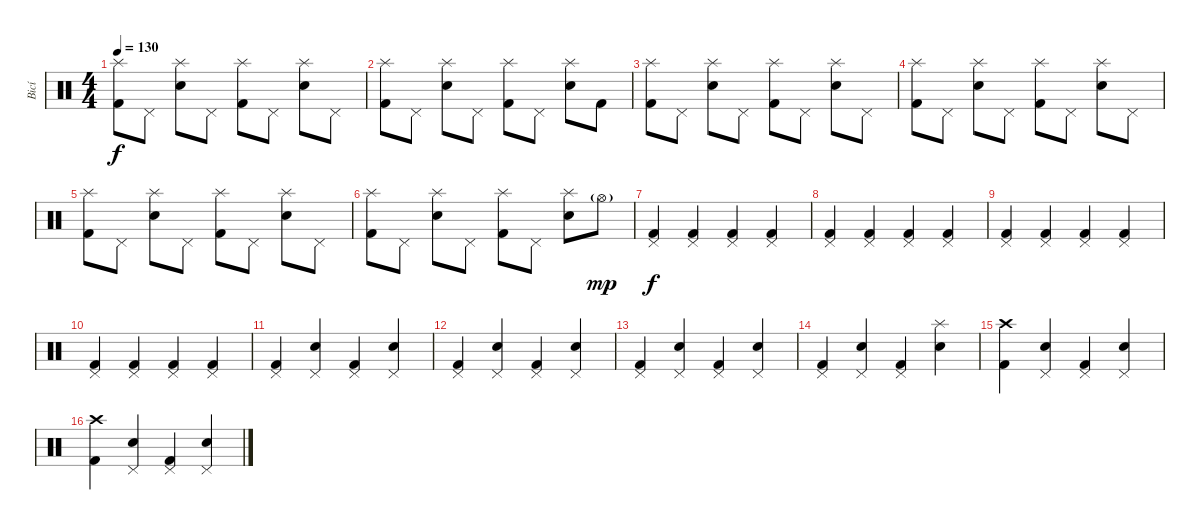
\track ("Bicí" "Bicí") {instrument percussion}
\staff {score}
\articulation defaults
\ts (4 4)
\tempo 130
\clef neutral
\ks c
("Splash (hit)" "Kick (hit) 2").8{dy f} "Pedal Hi-Hat (hit)".8 ("Splash (hit)" "Electric Snare (hit)").8 "Pedal Hi-Hat (hit)".8 ("Splash (hit)" "Kick (hit) 2").8 "Pedal Hi-Hat (hit)".8 ("Splash (hit)" "Electric Snare (hit)").8 "Pedal Hi-Hat (hit)".8 |
("Splash (hit)" "Kick (hit) 2").8 "Pedal Hi-Hat (hit)".8 ("Splash (hit)" "Electric Snare (hit)").8 "Pedal Hi-Hat (hit)".8 ("Splash (hit)" "Kick (hit) 2").8 "Pedal Hi-Hat (hit)".8 ("Splash (hit)" "Electric Snare (hit)").8 "Kick (hit) 2".8 |
("Splash (hit)" "Kick (hit) 2").8 "Pedal Hi-Hat (hit)".8 ("Splash (hit)" "Electric Snare (hit)").8 "Pedal Hi-Hat (hit)".8 ("Splash (hit)" "Kick (hit) 2").8 "Pedal Hi-Hat (hit)".8 ("Splash (hit)" "Electric Snare (hit)").8 "Pedal Hi-Hat (hit)".8 |
("Splash (hit)" "Kick (hit) 2").8 "Pedal Hi-Hat (hit)".8 ("Splash (hit)" "Electric Snare (hit)").8 "Pedal Hi-Hat (hit)".8 ("Splash (hit)" "Kick (hit) 2").8 "Pedal Hi-Hat (hit)".8 ("Splash (hit)" "Electric Snare (hit)").8 "Pedal Hi-Hat (hit)".8 |
("Splash (hit)" "Kick (hit) 2").8 "Pedal Hi-Hat (hit)".8 ("Splash (hit)" "Electric Snare (hit)").8 "Pedal Hi-Hat (hit)".8 ("Splash (hit)" "Kick (hit) 2").8 "Pedal Hi-Hat (hit)".8 ("Splash (hit)" "Electric Snare (hit)").8 "Pedal Hi-Hat (hit)".8 |
("Splash (hit)" "Kick (hit) 2").8 "Pedal Hi-Hat (hit)".8 ("Splash (hit)" "Electric Snare (hit)").8 "Pedal Hi-Hat (hit)".8 ("Splash (hit)" "Kick (hit) 2").8 "Pedal Hi-Hat (hit)".8 ("Splash (hit)" "Electric Snare (hit)").8 "Hi-Hat (open)"{g}.8{dy mp} |
("Pedal Hi-Hat (hit)" "Kick (hit) 2").4{dy f} ("Pedal Hi-Hat (hit)" "Kick (hit) 2").4 ("Pedal Hi-Hat (hit)" "Kick (hit) 2").4 ("Pedal Hi-Hat (hit)" "Kick (hit) 2").4 |
("Pedal Hi-Hat (hit)" "Kick (hit) 2").4 ("Pedal Hi-Hat (hit)" "Kick (hit) 2").4 ("Pedal Hi-Hat (hit)" "Kick (hit) 2").4 ("Pedal Hi-Hat (hit)" "Kick (hit) 2").4 |
("Pedal Hi-Hat (hit)" "Kick (hit) 2").4 ("Pedal Hi-Hat (hit)" "Kick (hit) 2").4 ("Pedal Hi-Hat (hit)" "Kick (hit) 2").4 ("Pedal Hi-Hat (hit)" "Kick (hit) 2").4 |
("Pedal Hi-Hat (hit)" "Kick (hit) 2").4 ("Pedal Hi-Hat (hit)" "Kick (hit) 2").4 ("Pedal Hi-Hat (hit)" "Kick (hit) 2").4 ("Pedal Hi-Hat (hit)" "Kick (hit) 2").4 |
("Pedal Hi-Hat (hit)" "Kick (hit) 2").4{volume 13} ("Pedal Hi-Hat (hit)" "Electric Snare (hit)").4{volume 16} ("Pedal Hi-Hat (hit)" "Kick (hit) 2").4{volume 13} ("Pedal Hi-Hat (hit)" "Electric Snare (hit)").4{volume 16} |
("Pedal Hi-Hat (hit)" "Kick (hit) 2").4{volume 13} ("Pedal Hi-Hat (hit)" "Electric Snare (hit)").4{volume 16} ("Pedal Hi-Hat (hit)" "Kick (hit) 2").4{volume 13} ("Pedal Hi-Hat (hit)" "Electric Snare (hit)").4{volume 16} |
("Pedal Hi-Hat (hit)" "Kick (hit) 2").4{volume 13} ("Pedal Hi-Hat (hit)" "Electric Snare (hit)").4{volume 16} ("Pedal Hi-Hat (hit)" "Kick (hit) 2").4{volume 13} ("Pedal Hi-Hat (hit)" "Electric Snare (hit)").4{volume 16} |
("Pedal Hi-Hat (hit)" "Kick (hit) 2").4{volume 13} ("Pedal Hi-Hat (hit)" "Electric Snare (hit)").4{volume 16} ("Pedal Hi-Hat (hit)" "Kick (hit) 2").4{volume 13} ("Splash (hit)" "Electric Snare (hit)").4{volume 16} |
("Crash high (hit)" "Kick (hit) 2").4{volume 13} ("Pedal Hi-Hat (hit)" "Electric Snare (hit)").4 ("Pedal Hi-Hat (hit)" "Kick (hit) 2").4 ("Pedal Hi-Hat (hit)" "Electric Snare (hit)").4 |
("Crash high (hit)" "Kick (hit) 2").4 ("Pedal Hi-Hat (hit)" "Electric Snare (hit)").4 ("Pedal Hi-Hat (hit)" "Kick (hit) 2").4 ("Pedal Hi-Hat (hit)" "Electric Snare (hit)").4
